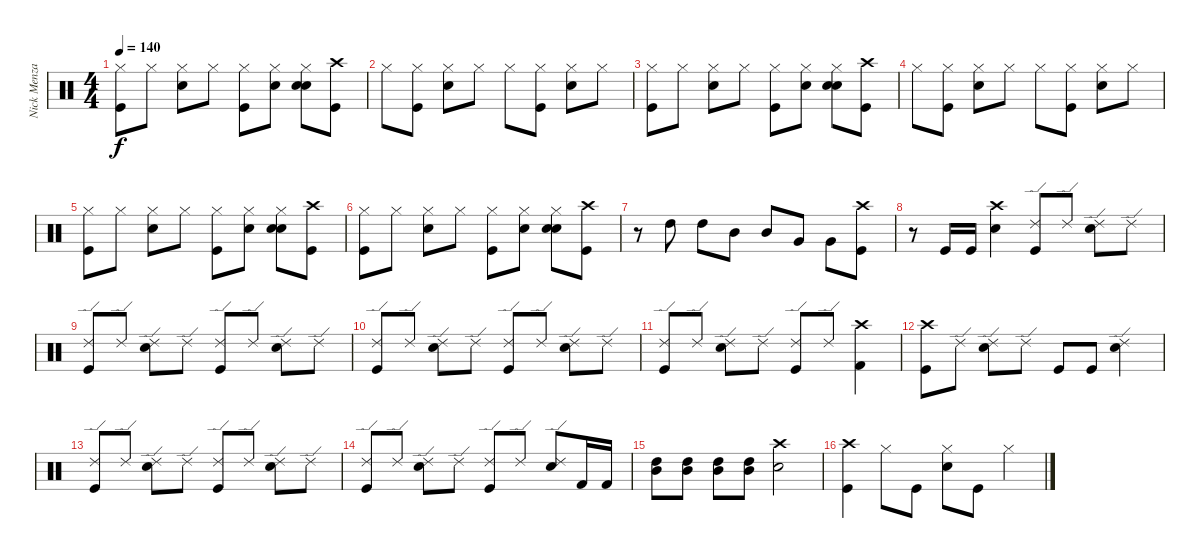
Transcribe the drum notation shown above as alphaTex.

\track ("Nick Menza (Drums)" "Nick Menza") {instrument percussion}
\staff {score}
\articulation defaults
\ts (4 4)
\tempo 140
\clef neutral
\ks c
("Hi-Hat (closed)" "Kick (hit)").8{dy f} "Hi-Hat (closed)".8 ("Hi-Hat (closed)" "Snare (hit) 2").8 "Hi-Hat (closed)".8 ("Hi-Hat (closed)" "Kick (hit)").8 ("Hi-Hat (closed)" "Electric Snare (hit)").8 ("Hi-Hat (closed)" "Snare (hit) 2" "Electric Snare (hit)").8 ("Crash high (hit)" "Kick (hit)").8 |
"Hi-Hat (closed)".8 ("Hi-Hat (closed)" "Kick (hit)").8 ("Hi-Hat (closed)" "Snare (hit) 2").8 "Hi-Hat (closed)".8 "Hi-Hat (closed)".8 ("Hi-Hat (closed)" "Kick (hit)").8 ("Hi-Hat (closed)" "Snare (hit) 2").8 "Hi-Hat (closed)".8 |
("Hi-Hat (closed)" "Kick (hit)").8 "Hi-Hat (closed)".8 ("Hi-Hat (closed)" "Snare (hit) 2").8 "Hi-Hat (closed)".8 ("Hi-Hat (closed)" "Kick (hit)").8 ("Hi-Hat (closed)" "Electric Snare (hit)").8 ("Hi-Hat (closed)" "Snare (hit) 2" "Electric Snare (hit)").8 ("Crash high (hit)" "Kick (hit)").8 |
"Hi-Hat (closed)".8 ("Hi-Hat (closed)" "Kick (hit)").8 ("Hi-Hat (closed)" "Snare (hit) 2").8 "Hi-Hat (closed)".8 "Hi-Hat (closed)".8 ("Hi-Hat (closed)" "Kick (hit)").8 ("Hi-Hat (closed)" "Snare (hit) 2").8 "Hi-Hat (closed)".8 |
("Hi-Hat (closed)" "Kick (hit)").8 "Hi-Hat (closed)".8 ("Hi-Hat (closed)" "Snare (hit) 2").8 "Hi-Hat (closed)".8 ("Hi-Hat (closed)" "Kick (hit)").8 ("Hi-Hat (closed)" "Electric Snare (hit)").8 ("Hi-Hat (closed)" "Snare (hit) 2" "Electric Snare (hit)").8 ("Crash high (hit)" "Kick (hit)").8 |
("Hi-Hat (closed)" "Kick (hit)").8 "Hi-Hat (closed)".8 ("Hi-Hat (closed)" "Snare (hit) 2").8 "Hi-Hat (closed)".8 ("Hi-Hat (closed)" "Kick (hit)").8 ("Hi-Hat (closed)" "Electric Snare (hit)").8 ("Hi-Hat (closed)" "Snare (hit) 2" "Electric Snare (hit)").8 ("Crash high (hit)" "Kick (hit)").8 |
r.8 "High Tom (hit)".8 "High Tom (hit)".8 "Mid Tom (hit)".8 "Mid Tom (hit)".8 "Very Low Tom (hit)".8 "Very Low Tom (hit)".8 ("Crash high (hit)" "Kick (hit)").8 |
r.8 "Kick (hit)".16 "Kick (hit)".16 ("Crash high (hit)" "Snare (hit) 2").4 ("Ride (edge) 2" "Kick (hit)").8 "Ride (edge) 2".8 ("Ride (edge) 2" "Snare (hit) 2").8 "Ride (edge) 2".8 |
("Ride (edge) 2" "Kick (hit)").8 "Ride (edge) 2".8 ("Ride (edge) 2" "Snare (hit) 2").8 "Ride (edge) 2".8 ("Ride (edge) 2" "Kick (hit)").8 "Ride (edge) 2".8 ("Ride (edge) 2" "Snare (hit) 2").8 "Ride (edge) 2".8 |
("Ride (edge) 2" "Kick (hit)").8 "Ride (edge) 2".8 ("Ride (edge) 2" "Snare (hit) 2").8 "Ride (edge) 2".8 ("Ride (edge) 2" "Kick (hit)").8 "Ride (edge) 2".8 ("Ride (edge) 2" "Snare (hit) 2").8 "Ride (edge) 2".8 |
("Ride (edge) 2" "Kick (hit)").8 "Ride (edge) 2".8 ("Ride (edge) 2" "Snare (hit) 2").8 "Ride (edge) 2".8 ("Ride (edge) 2" "Kick (hit)").8 "Ride (edge) 2".8 ("Crash high (hit)" "Kick (hit) 2").4 |
("Crash high (hit)" "Kick (hit)").8 "Ride (edge) 2".8 ("Ride (edge) 2" "Snare (hit) 2").8 "Ride (edge) 2".8 "Kick (hit)".8 "Kick (hit)".8 ("Ride (edge) 2" "Snare (hit) 2").4 |
("Ride (edge) 2" "Kick (hit)").8 "Ride (edge) 2".8 ("Ride (edge) 2" "Snare (hit) 2").8 "Ride (edge) 2".8 ("Ride (edge) 2" "Kick (hit)").8 "Ride (edge) 2".8 ("Ride (edge) 2" "Snare (hit) 2").8 "Ride (edge) 2".8 |
("Ride (edge) 2" "Kick (hit)").8 "Ride (edge) 2".8 ("Ride (edge) 2" "Snare (hit) 2").8 "Ride (edge) 2".8 ("Ride (edge) 2" "Kick (hit)").8 "Ride (edge) 2".8 ("Ride (edge) 2" "Snare (hit) 2").8 "Kick (hit) 2".16 "Kick (hit) 2".16 |
("High Tom (hit)" "Mid Tom (hit)").8 ("High Tom (hit)" "Mid Tom (hit)").8 ("High Tom (hit)" "Mid Tom (hit)").8 ("High Tom (hit)" "Mid Tom (hit)").8 ("Crash high (hit)" "Snare (hit) 2").2 |
("Crash high (hit)" "Kick (hit)").4 "Hi-Hat (closed)".8 "Kick (hit)".8 ("Hi-Hat (closed)" "Snare (hit) 2").8 "Kick (hit)".8 "Hi-Hat (closed)".4
